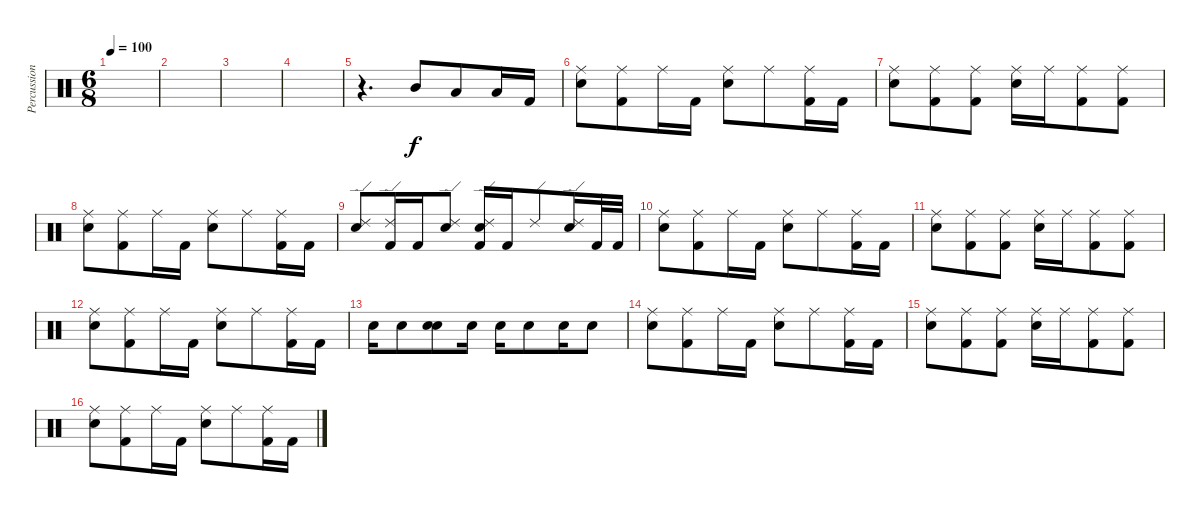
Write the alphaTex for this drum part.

\track ("Percussion" "Percussion") {instrument percussion}
\staff {score}
\articulation defaults
\ts (6 8)
\tempo 100
\clef neutral
\ks c
|
|
|
|
r.4{d} "Mid Tom (hit)".8 "Low Tom (hit)".8 "Low Floor Tom (hit)".16 "Kick (hit) 2".16 |
("Ride (middle)" "Electric Snare (hit)").8 ("Ride (middle)" "Kick (hit) 2").8 "Ride (middle)".16 "Kick (hit) 2".16 ("Ride (middle)" "Electric Snare (hit)").8 "Ride (middle)".8 ("Ride (middle)" "Kick (hit) 2").16 "Kick (hit) 2".16 |
("Ride (middle)" "Electric Snare (hit)").8 ("Ride (middle)" "Kick (hit) 2").8 ("Ride (middle)" "Kick (hit) 2").8 ("Ride (middle)" "Electric Snare (hit)").16 "Ride (middle)".16 ("Ride (middle)" "Kick (hit) 2").8 ("Ride (middle)" "Kick (hit) 2").8 |
("Ride (middle)" "Electric Snare (hit)").8 ("Ride (middle)" "Kick (hit) 2").8 "Ride (middle)".16 "Kick (hit) 2".16 ("Ride (middle)" "Electric Snare (hit)").8 "Ride (middle)".8 ("Ride (middle)" "Kick (hit) 2").16 "Kick (hit) 2".16 |
("Ride (edge) 2" "Electric Snare (hit)").8 ("Ride (edge) 2" "Kick (hit) 2").16 "Kick (hit) 2".16 ("Ride (edge) 2" "Electric Snare (hit)").8 ("Ride (edge) 2" "Electric Snare (hit)" "Kick (hit) 2").16 "Kick (hit) 2".16 "Ride (edge) 2".8 ("Ride (edge) 2" "Electric Snare (hit)").16 "Kick (hit) 2".32 "Kick (hit) 2".32 |
("Ride (middle)" "Electric Snare (hit)").8 ("Ride (middle)" "Kick (hit) 2").8 "Ride (middle)".16 "Kick (hit) 2".16 ("Ride (middle)" "Electric Snare (hit)").8 "Ride (middle)".8 ("Ride (middle)" "Kick (hit) 2").16 "Kick (hit) 2".16 |
("Ride (middle)" "Electric Snare (hit)").8 ("Ride (middle)" "Kick (hit) 2").8 ("Ride (middle)" "Kick (hit) 2").8 ("Ride (middle)" "Electric Snare (hit)").16 "Ride (middle)".16 ("Ride (middle)" "Kick (hit) 2").8 ("Ride (middle)" "Kick (hit) 2").8 |
("Ride (middle)" "Electric Snare (hit)").8 ("Ride (middle)" "Kick (hit) 2").8 "Ride (middle)".16 "Kick (hit) 2".16 ("Ride (middle)" "Electric Snare (hit)").8 "Ride (middle)".8 ("Ride (middle)" "Kick (hit) 2").16 "Kick (hit) 2".16 |
"Electric Snare (hit)".16 "Electric Snare (hit)".8 ("Electric Snare (hit)" "Electric Snare (hit)").8 "Electric Snare (hit)".16 "Electric Snare (hit)".16 "Electric Snare (hit)".8 "Electric Snare (hit)".16 "Electric Snare (hit)".8 |
("Ride (middle)" "Electric Snare (hit)").8 ("Ride (middle)" "Kick (hit) 2").8 "Ride (middle)".16 "Kick (hit) 2".16 ("Ride (middle)" "Electric Snare (hit)").8 "Ride (middle)".8 ("Ride (middle)" "Kick (hit) 2").16 "Kick (hit) 2".16 |
("Ride (middle)" "Electric Snare (hit)").8 ("Ride (middle)" "Kick (hit) 2").8 ("Ride (middle)" "Kick (hit) 2").8 ("Ride (middle)" "Electric Snare (hit)").16 "Ride (middle)".16 ("Ride (middle)" "Kick (hit) 2").8 ("Ride (middle)" "Kick (hit) 2").8 |
("Ride (middle)" "Electric Snare (hit)").8 ("Ride (middle)" "Kick (hit) 2").8 "Ride (middle)".16 "Kick (hit) 2".16 ("Ride (middle)" "Electric Snare (hit)").8 "Ride (middle)".8 ("Ride (middle)" "Kick (hit) 2").16 "Kick (hit) 2".16
